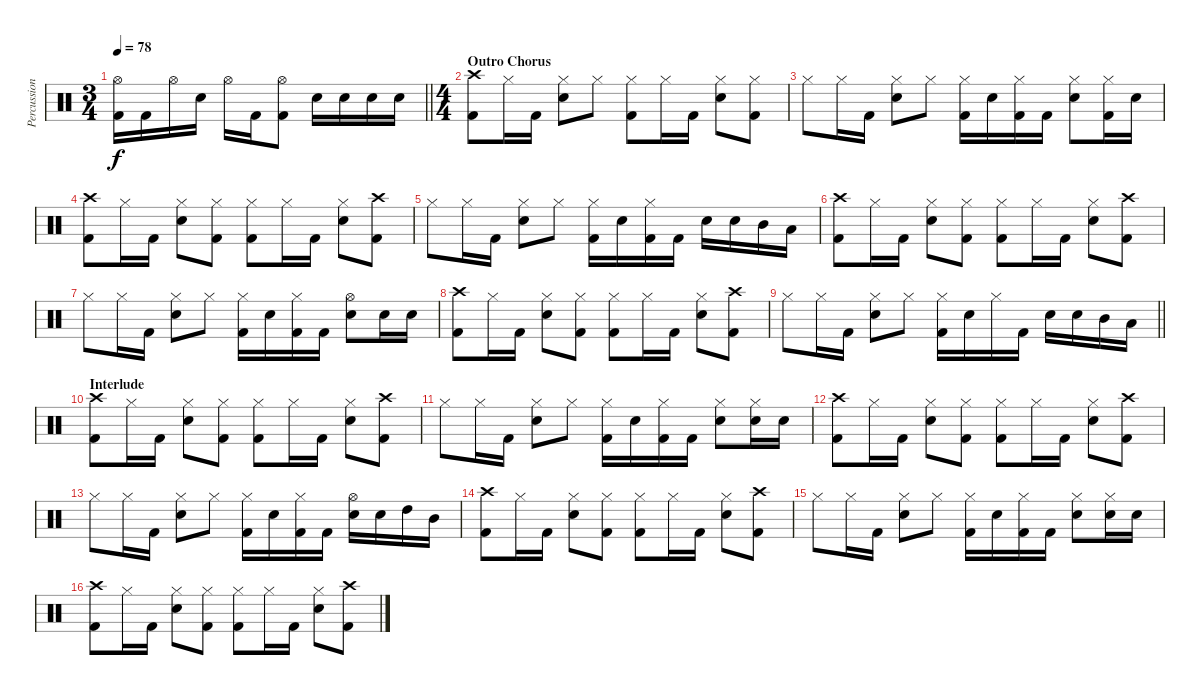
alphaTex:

\track ("Percussion" "Percussion") {instrument percussion}
\staff {score}
\articulation defaults
\ts (3 4)
\tempo 78
\clef neutral
\barLineRight lightlight
\ks c
("Hi-Hat (open)" "Kick (hit) 2").16{dy f} "Kick (hit) 2".16 "Hi-Hat (open)".16 "Electric Snare (hit)".16 "Hi-Hat (open)".16 "Kick (hit) 2".16 ("Hi-Hat (open)" "Kick (hit) 2").8 "Electric Snare (hit)".16 "Electric Snare (hit)".16 "Electric Snare (hit)".16 "Electric Snare (hit)".16 |
\ts (4 4)
\section ("" "Outro Chorus")
("Crash high (hit)" "Kick (hit) 2").8 "Hi-Hat (closed)".16 "Kick (hit) 2".16 ("Hi-Hat (closed)" "Electric Snare (hit)").8 "Hi-Hat (closed)".8 ("Hi-Hat (closed)" "Kick (hit) 2").8 "Hi-Hat (closed)".16 "Kick (hit) 2".16 ("Hi-Hat (closed)" "Electric Snare (hit)").8 ("Hi-Hat (closed)" "Kick (hit) 2").8 |
"Hi-Hat (closed)".8 "Hi-Hat (closed)".16 "Kick (hit) 2".16 ("Hi-Hat (closed)" "Electric Snare (hit)").8 "Hi-Hat (closed)".8 ("Hi-Hat (closed)" "Kick (hit) 2").16 "Electric Snare (hit)".16 ("Hi-Hat (closed)" "Kick (hit) 2").16 "Kick (hit) 2".16 ("Hi-Hat (closed)" "Electric Snare (hit)").8 ("Hi-Hat (closed)" "Kick (hit) 2").16 "Electric Snare (hit)".16 |
("Crash high (hit)" "Kick (hit) 2").8 "Hi-Hat (closed)".16 "Kick (hit) 2".16 ("Hi-Hat (closed)" "Electric Snare (hit)").8 ("Hi-Hat (closed)" "Kick (hit) 2").8 ("Hi-Hat (closed)" "Kick (hit) 2").8 "Hi-Hat (closed)".16 "Kick (hit) 2".16 ("Hi-Hat (closed)" "Electric Snare (hit)").8 ("Crash high (hit)" "Kick (hit) 2").8 |
"Hi-Hat (closed)".8 "Hi-Hat (closed)".16 "Kick (hit) 2".16 ("Hi-Hat (closed)" "Electric Snare (hit)").8 "Hi-Hat (closed)".8 ("Hi-Hat (closed)" "Kick (hit) 2").16 "Electric Snare (hit)".16 ("Hi-Hat (closed)" "Kick (hit) 2").16 "Kick (hit) 2".16 "Electric Snare (hit)".16 "Electric Snare (hit)".16 "Mid Tom (hit)".16 "Low Tom (hit)".16 |
("Crash high (hit)" "Kick (hit) 2").8 "Hi-Hat (closed)".16 "Kick (hit) 2".16 ("Hi-Hat (closed)" "Electric Snare (hit)").8 ("Hi-Hat (closed)" "Kick (hit) 2").8 ("Hi-Hat (closed)" "Kick (hit) 2").8 "Hi-Hat (closed)".16 "Kick (hit) 2".16 ("Hi-Hat (closed)" "Electric Snare (hit)").8 ("Crash high (hit)" "Kick (hit) 2").8 |
"Hi-Hat (closed)".8 "Hi-Hat (closed)".16 "Kick (hit) 2".16 ("Hi-Hat (closed)" "Electric Snare (hit)").8 "Hi-Hat (closed)".8 ("Hi-Hat (closed)" "Kick (hit) 2").16 "Electric Snare (hit)".16 ("Hi-Hat (closed)" "Kick (hit) 2").16 "Kick (hit) 2".16 ("Hi-Hat (open)" "Electric Snare (hit)").8 "Electric Snare (hit)".16 "Electric Snare (hit)".16 |
("Crash high (hit)" "Kick (hit) 2").8 "Hi-Hat (closed)".16 "Kick (hit) 2".16 ("Hi-Hat (closed)" "Electric Snare (hit)").8 ("Hi-Hat (closed)" "Kick (hit) 2").8 ("Hi-Hat (closed)" "Kick (hit) 2").8 "Hi-Hat (closed)".16 "Kick (hit) 2".16 ("Hi-Hat (closed)" "Electric Snare (hit)").8 ("Crash high (hit)" "Kick (hit) 2").8 |
\barLineRight lightlight "Hi-Hat (closed)".8 "Hi-Hat (closed)".16 "Kick (hit) 2".16
("Hi-Hat (closed)" "Electric Snare (hit)").8 "Hi-Hat (closed)".8 ("Hi-Hat (closed)" "Kick (hit) 2").16 "Electric Snare (hit)".16 "Hi-Hat (closed)".16 "Kick (hit) 2".16 "Electric Snare (hit)".16 "Electric Snare (hit)".16 "Mid Tom (hit)".16 "Low Tom (hit)".16 |
\section ("" "Interlude")
("Crash high (hit)" "Kick (hit) 2").8 "Hi-Hat (closed)".16 "Kick (hit) 2".16 ("Hi-Hat (closed)" "Electric Snare (hit)").8 ("Hi-Hat (closed)" "Kick (hit) 2").8 ("Hi-Hat (closed)" "Kick (hit) 2").8 "Hi-Hat (closed)".16 "Kick (hit) 2".16 ("Hi-Hat (closed)" "Electric Snare (hit)").8 ("Crash high (hit)" "Kick (hit) 2").8 |
"Hi-Hat (closed)".8 "Hi-Hat (closed)".16 "Kick (hit) 2".16 ("Hi-Hat (closed)" "Electric Snare (hit)").8 "Hi-Hat (closed)".8 ("Hi-Hat (closed)" "Kick (hit) 2").16 "Electric Snare (hit)".16 ("Hi-Hat (closed)" "Kick (hit) 2").16 "Kick (hit) 2".16 ("Hi-Hat (closed)" "Electric Snare (hit)").8 ("Hi-Hat (closed)" "Electric Snare (hit)").16 "Electric Snare (hit)".16 |
("Crash high (hit)" "Kick (hit) 2").8 "Hi-Hat (closed)".16 "Kick (hit) 2".16 ("Hi-Hat (closed)" "Electric Snare (hit)").8 ("Hi-Hat (closed)" "Kick (hit) 2").8 ("Hi-Hat (closed)" "Kick (hit) 2").8 "Hi-Hat (closed)".16 "Kick (hit) 2".16 ("Hi-Hat (closed)" "Electric Snare (hit)").8 ("Crash high (hit)" "Kick (hit) 2").8 |
"Hi-Hat (closed)".8 "Hi-Hat (closed)".16 "Kick (hit) 2".16 ("Hi-Hat (closed)" "Electric Snare (hit)").8 "Hi-Hat (closed)".8 ("Hi-Hat (closed)" "Kick (hit) 2").16 "Electric Snare (hit)".16 ("Hi-Hat (closed)" "Kick (hit) 2").16 "Kick (hit) 2".16 ("Hi-Hat (open)" "Electric Snare (hit)").16 "Electric Snare (hit)".16 "High Tom (hit)".16 "Mid Tom (hit)".16 |
("Crash high (hit)" "Kick (hit) 2").8 "Hi-Hat (closed)".16 "Kick (hit) 2".16 ("Hi-Hat (closed)" "Electric Snare (hit)").8 ("Hi-Hat (closed)" "Kick (hit) 2").8 ("Hi-Hat (closed)" "Kick (hit) 2").8 "Hi-Hat (closed)".16 "Kick (hit) 2".16 ("Hi-Hat (closed)" "Electric Snare (hit)").8 ("Crash high (hit)" "Kick (hit) 2").8 |
"Hi-Hat (closed)".8 "Hi-Hat (closed)".16 "Kick (hit) 2".16 ("Hi-Hat (closed)" "Electric Snare (hit)").8 "Hi-Hat (closed)".8 ("Hi-Hat (closed)" "Kick (hit) 2").16 "Electric Snare (hit)".16 ("Hi-Hat (closed)" "Kick (hit) 2").16 "Kick (hit) 2".16 ("Hi-Hat (closed)" "Electric Snare (hit)").8 ("Hi-Hat (closed)" "Electric Snare (hit)").16 "Electric Snare (hit)".16 |
("Crash high (hit)" "Kick (hit) 2").8 "Hi-Hat (closed)".16 "Kick (hit) 2".16 ("Hi-Hat (closed)" "Electric Snare (hit)").8 ("Hi-Hat (closed)" "Kick (hit) 2").8 ("Hi-Hat (closed)" "Kick (hit) 2").8 "Hi-Hat (closed)".16 "Kick (hit) 2".16 ("Hi-Hat (closed)" "Electric Snare (hit)").8 ("Crash high (hit)" "Kick (hit) 2").8
